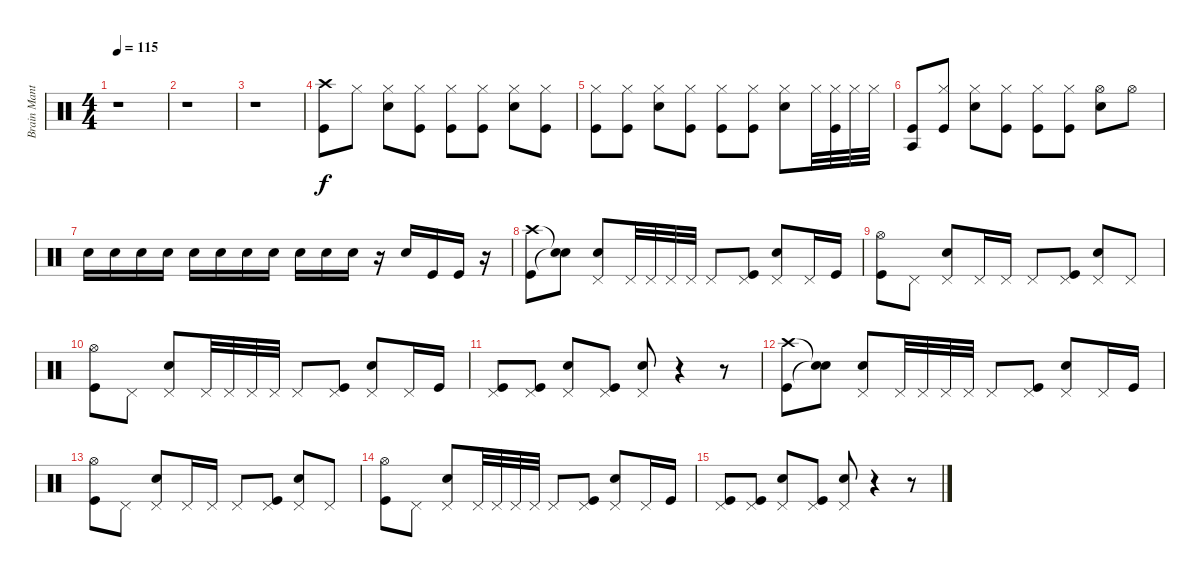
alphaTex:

\track ("Brain Mantia - Drums" "Brain Mant") {instrument percussion}
\staff {score}
\articulation defaults
\ts (4 4)
\tempo 115
\clef neutral
\ks c
r.1{dy f} |
r.1 |
r.1 |
("Crash high (hit)" "Kick (hit)").8 "Hi-Hat (closed)".8 ("Hi-Hat (closed)" "Snare (hit) 2").8 ("Hi-Hat (closed)" "Kick (hit)").8 ("Hi-Hat (closed)" "Kick (hit)").8 ("Hi-Hat (closed)" "Kick (hit)").8 ("Hi-Hat (closed)" "Snare (hit) 2").8 ("Hi-Hat (closed)" "Kick (hit)").8 |
("Hi-Hat (closed)" "Kick (hit)").8 ("Hi-Hat (closed)" "Kick (hit)").8 ("Hi-Hat (closed)" "Snare (hit) 2").8 ("Hi-Hat (closed)" "Kick (hit)").8 ("Hi-Hat (closed)" "Kick (hit)").8 ("Hi-Hat (closed)" "Kick (hit)").8 ("Hi-Hat (closed)" "Snare (hit) 2").8 "Hi-Hat (closed)".32 ("Hi-Hat (closed)" "Kick (hit)").32 "Hi-Hat (closed)".32 "Hi-Hat (closed)".32 |
("Agogo tow (hit)" "Kick (hit)").8 ("Hi-Hat (closed)" "Kick (hit)").8 ("Hi-Hat (closed)" "Snare (hit) 2").8 ("Hi-Hat (closed)" "Kick (hit)").8 ("Hi-Hat (closed)" "Kick (hit)").8 ("Hi-Hat (closed)" "Kick (hit)").8 ("Hi-Hat (open)" "Snare (hit) 2").8 "Hi-Hat (open)".8 |
"Snare (hit) 2".16 "Snare (hit) 2".16 "Snare (hit) 2".16 "Snare (hit) 2".16 "Snare (hit) 2".16 "Snare (hit) 2".16 "Snare (hit) 2".16 "Snare (hit) 2".16 "Snare (hit) 2".16 "Snare (hit) 2".16 "Snare (hit) 2".16 r.16 "Snare (hit) 2".16 "Kick (hit)".16 "Kick (hit)".16 r.16 |
("Crash high (hit)" "Kick (hit)").8 ("Snare (hit)"{t} "Snare (hit)"{t}).8 ("Pedal Hi-Hat (hit)" "Snare (hit) 2").8 "Pedal Hi-Hat (hit)".32 "Pedal Hi-Hat (hit)".32 "Pedal Hi-Hat (hit)".32 "Pedal Hi-Hat (hit)".32 "Pedal Hi-Hat (hit)".8 ("Pedal Hi-Hat (hit)" "Kick (hit)").8 ("Pedal Hi-Hat (hit)" "Snare (hit) 2").8 "Pedal Hi-Hat (hit)".16 "Kick (hit)".16 |
("Hi-Hat (open)" "Kick (hit)").8 "Pedal Hi-Hat (hit)".8 ("Pedal Hi-Hat (hit)" "Snare (hit) 2").8 "Pedal Hi-Hat (hit)".16 "Pedal Hi-Hat (hit)".16 "Pedal Hi-Hat (hit)".8 ("Pedal Hi-Hat (hit)" "Kick (hit)").8 ("Pedal Hi-Hat (hit)" "Snare (hit) 2").8 "Pedal Hi-Hat (hit)".8 |
("Hi-Hat (open)" "Kick (hit)").8 "Pedal Hi-Hat (hit)".8 ("Pedal Hi-Hat (hit)" "Snare (hit) 2").8 "Pedal Hi-Hat (hit)".32 "Pedal Hi-Hat (hit)".32 "Pedal Hi-Hat (hit)".32 "Pedal Hi-Hat (hit)".32 "Pedal Hi-Hat (hit)".8 ("Pedal Hi-Hat (hit)" "Kick (hit)").8 ("Pedal Hi-Hat (hit)" "Snare (hit) 2").8 "Pedal Hi-Hat (hit)".16 "Kick (hit)".16 |
("Pedal Hi-Hat (hit)" "Kick (hit)").8 ("Pedal Hi-Hat (hit)" "Kick (hit)").8 ("Pedal Hi-Hat (hit)" "Snare (hit) 2").8 ("Pedal Hi-Hat (hit)" "Kick (hit)").8 ("Pedal Hi-Hat (hit)" "Snare (hit) 2").8 r.4 r.8 |
("Crash high (hit)" "Kick (hit)").8 ("Snare (hit)"{t} "Snare (hit)"{t}).8 ("Pedal Hi-Hat (hit)" "Snare (hit) 2").8 "Pedal Hi-Hat (hit)".32 "Pedal Hi-Hat (hit)".32 "Pedal Hi-Hat (hit)".32 "Pedal Hi-Hat (hit)".32 "Pedal Hi-Hat (hit)".8 ("Pedal Hi-Hat (hit)" "Kick (hit)").8 ("Pedal Hi-Hat (hit)" "Snare (hit) 2").8 "Pedal Hi-Hat (hit)".16 "Kick (hit)".16 |
("Hi-Hat (open)" "Kick (hit)").8 "Pedal Hi-Hat (hit)".8 ("Pedal Hi-Hat (hit)" "Snare (hit) 2").8 "Pedal Hi-Hat (hit)".16 "Pedal Hi-Hat (hit)".16 "Pedal Hi-Hat (hit)".8 ("Pedal Hi-Hat (hit)" "Kick (hit)").8 ("Pedal Hi-Hat (hit)" "Snare (hit) 2").8 "Pedal Hi-Hat (hit)".8 |
("Hi-Hat (open)" "Kick (hit)").8 "Pedal Hi-Hat (hit)".8 ("Pedal Hi-Hat (hit)" "Snare (hit) 2").8 "Pedal Hi-Hat (hit)".32 "Pedal Hi-Hat (hit)".32 "Pedal Hi-Hat (hit)".32 "Pedal Hi-Hat (hit)".32 "Pedal Hi-Hat (hit)".8 ("Pedal Hi-Hat (hit)" "Kick (hit)").8 ("Pedal Hi-Hat (hit)" "Snare (hit) 2").8 "Pedal Hi-Hat (hit)".16 "Kick (hit)".16 |
("Pedal Hi-Hat (hit)" "Kick (hit)").8 ("Pedal Hi-Hat (hit)" "Kick (hit)").8 ("Pedal Hi-Hat (hit)" "Snare (hit) 2").8 ("Pedal Hi-Hat (hit)" "Kick (hit)").8 ("Pedal Hi-Hat (hit)" "Snare (hit) 2").8 r.4 r.8
